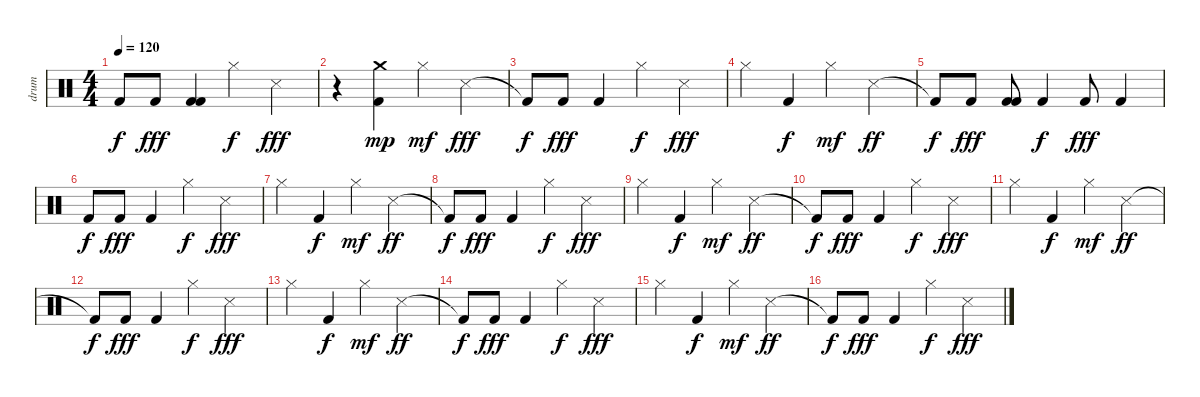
\track ("drum" "drum") {instrument percussion}
\staff {score}
\articulation defaults
\ts (4 4)
\tempo 120
\clef neutral
\ks c "Kick (hit) 2"{t}.8{dy f} "Kick (hit) 2".8{dy fff}
("Kick (hit) 2" "Kick (hit) 2").4 "Hi-Hat (closed)".4{dy f} "Metronome (hit)".4{dy fff} |
r.4 ("Crash medium (hit)" "Kick (hit) 2").4{dy mp} "Hi-Hat (closed)".4{dy mf} "Metronome (hit)".4{dy fff} |
"Kick (hit) 2"{t}.8{dy f} "Kick (hit) 2".8{dy fff} "Kick (hit) 2".4 "Hi-Hat (closed)".4{dy f} "Metronome (hit)".4{dy fff} |
"Hi-Hat (closed)".4 "Kick (hit) 2".4{dy f} "Hi-Hat (closed)".4{dy mf} "Metronome (hit)".4{dy ff} |
"Kick (hit) 2"{t}.8{dy f} "Kick (hit) 2".8{dy fff} ("Kick (hit) 2" "Kick (hit) 2").8 "Kick (hit) 2".4{dy f} "Kick (hit) 2".8{dy fff} "Kick (hit) 2".4 |
"Kick (hit) 2".8{dy f} "Kick (hit) 2".8{dy fff} "Kick (hit) 2".4 "Hi-Hat (closed)".4{dy f} "Metronome (hit)".4{dy fff} |
"Hi-Hat (closed)".4 "Kick (hit) 2".4{dy f} "Hi-Hat (closed)".4{dy mf} "Metronome (hit)".4{dy ff} |
"Kick (hit) 2"{t}.8{dy f} "Kick (hit) 2".8{dy fff} "Kick (hit) 2".4 "Hi-Hat (closed)".4{dy f} "Metronome (hit)".4{dy fff} |
"Hi-Hat (closed)".4 "Kick (hit) 2".4{dy f} "Hi-Hat (closed)".4{dy mf} "Metronome (hit)".4{dy ff} |
"Kick (hit) 2"{t}.8{dy f} "Kick (hit) 2".8{dy fff} "Kick (hit) 2".4 "Hi-Hat (closed)".4{dy f} "Metronome (hit)".4{dy fff} |
"Hi-Hat (closed)".4 "Kick (hit) 2".4{dy f} "Hi-Hat (closed)".4{dy mf} "Metronome (hit)".4{dy ff} |
"Kick (hit) 2"{t}.8{dy f} "Kick (hit) 2".8{dy fff} "Kick (hit) 2".4 "Hi-Hat (closed)".4{dy f} "Metronome (hit)".4{dy fff} |
"Hi-Hat (closed)".4 "Kick (hit) 2".4{dy f} "Hi-Hat (closed)".4{dy mf} "Metronome (hit)".4{dy ff} |
"Kick (hit) 2"{t}.8{dy f} "Kick (hit) 2".8{dy fff} "Kick (hit) 2".4 "Hi-Hat (closed)".4{dy f} "Metronome (hit)".4{dy fff} |
"Hi-Hat (closed)".4 "Kick (hit) 2".4{dy f} "Hi-Hat (closed)".4{dy mf} "Metronome (hit)".4{dy ff} |
"Kick (hit) 2"{t}.8{dy f} "Kick (hit) 2".8{dy fff} "Kick (hit) 2".4 "Hi-Hat (closed)".4{dy f} "Metronome (hit)".4{dy fff}
